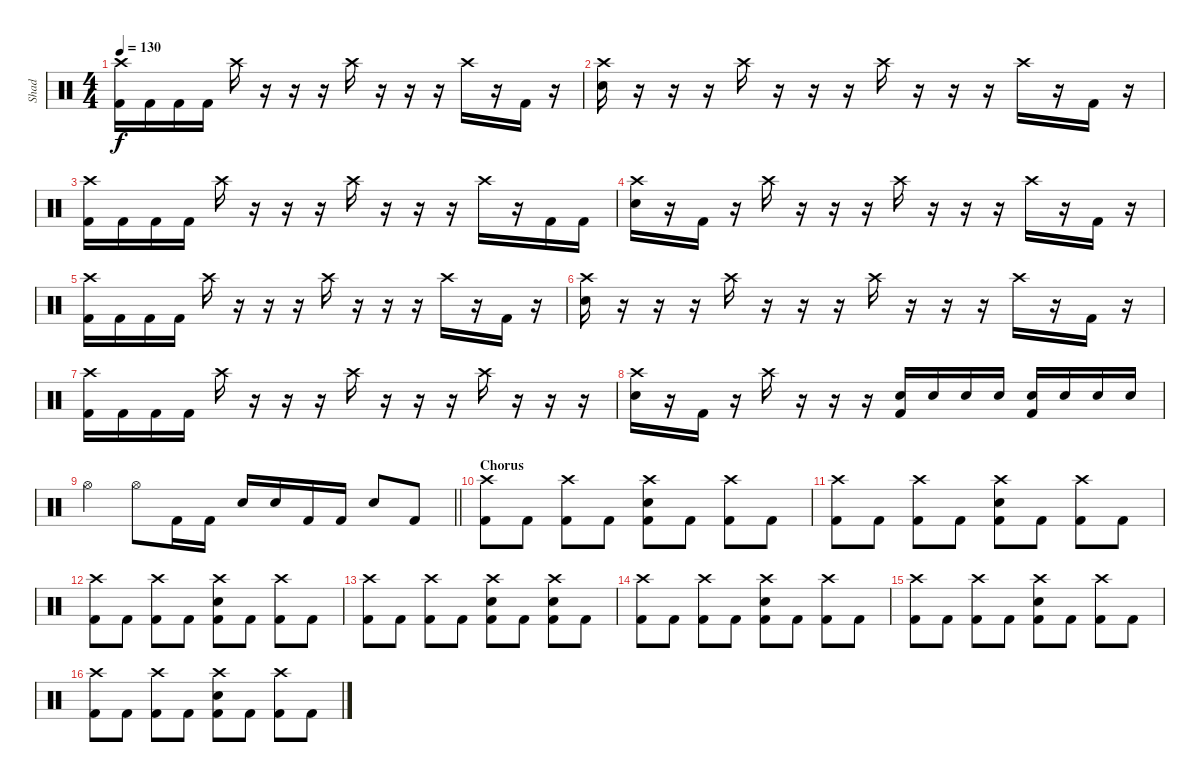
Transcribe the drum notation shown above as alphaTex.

\track ("Shad" "Shad") {instrument percussion}
\staff {score}
\articulation defaults
\ts (4 4)
\tempo 130
\clef neutral
\ks c
("Crash high (hit)" "Kick (hit) 2").16{dy f} "Kick (hit) 2".16 "Kick (hit) 2".16 "Kick (hit) 2".16 "Crash high (hit)".16 r.16 r.16 r.16 "Crash high (hit)".16 r.16 r.16 r.16 "Crash high (hit)".16 r.16 "Kick (hit) 2".16 r.16 |
("Crash high (hit)" "Electric Snare (hit)").16 r.16 r.16 r.16 "Crash high (hit)".16 r.16 r.16 r.16 "Crash high (hit)".16 r.16 r.16 r.16 "Crash high (hit)".16 r.16 "Kick (hit) 2".16 r.16 |
("Crash high (hit)" "Kick (hit) 2").16 "Kick (hit) 2".16 "Kick (hit) 2".16 "Kick (hit) 2".16 "Crash high (hit)".16 r.16 r.16 r.16 "Crash high (hit)".16 r.16 r.16 r.16 "Crash high (hit)".16 r.16 "Kick (hit) 2".16 "Kick (hit) 2".16 |
("Crash high (hit)" "Electric Snare (hit)").16 r.16 "Kick (hit) 2".16 r.16 "Crash high (hit)".16 r.16 r.16 r.16 "Crash high (hit)".16 r.16 r.16 r.16 "Crash high (hit)".16 r.16 "Kick (hit) 2".16 r.16 |
("Crash high (hit)" "Kick (hit) 2").16 "Kick (hit) 2".16 "Kick (hit) 2".16 "Kick (hit) 2".16 "Crash high (hit)".16 r.16 r.16 r.16 "Crash high (hit)".16 r.16 r.16 r.16 "Crash high (hit)".16 r.16 "Kick (hit) 2".16 r.16 |
("Crash high (hit)" "Electric Snare (hit)").16 r.16 r.16 r.16 "Crash high (hit)".16 r.16 r.16 r.16 "Crash high (hit)".16 r.16 r.16 r.16 "Crash high (hit)".16 r.16 "Kick (hit) 2".16 r.16 |
("Crash high (hit)" "Kick (hit) 2").16 "Kick (hit) 2".16 "Kick (hit) 2".16 "Kick (hit) 2".16 "Crash high (hit)".16 r.16 r.16 r.16 "Crash high (hit)".16 r.16 r.16 r.16 "Crash high (hit)".16 r.16 r.16 r.16 |
("Crash high (hit)" "Electric Snare (hit)").16 r.16 "Kick (hit) 2".16 r.16 "Crash high (hit)".16 r.16 r.16 r.16 ("Electric Snare (hit)" "Kick (hit) 2").16 "Electric Snare (hit)".16 "Electric Snare (hit)".16 "Electric Snare (hit)".16 ("Electric Snare (hit)" "Kick (hit) 2").16 "Electric Snare (hit)".16 "Electric Snare (hit)".16 "Electric Snare (hit)".16 |
\barLineRight lightlight "Hi-Hat (open)".4 "Hi-Hat (open)".8 "Kick (hit) 2".16 "Kick (hit) 2".16 "Electric Snare (hit)".16 "Electric Snare (hit)".16 "Kick (hit) 2".16 "Kick (hit) 2".16 "Electric Snare (hit)".8 "Kick (hit) 2".8
|
\section ("" "Chorus")
("Crash high (hit)" "Kick (hit) 2").8 "Kick (hit) 2".8 ("Crash high (hit)" "Kick (hit) 2").8 "Kick (hit) 2".8 ("Crash high (hit)" "Electric Snare (hit)" "Kick (hit) 2").8 "Kick (hit) 2".8 ("Crash high (hit)" "Kick (hit) 2").8 "Kick (hit) 2".8 |
("Crash high (hit)" "Kick (hit) 2").8 "Kick (hit) 2".8 ("Crash high (hit)" "Kick (hit) 2").8 "Kick (hit) 2".8 ("Crash high (hit)" "Electric Snare (hit)" "Kick (hit) 2").8 "Kick (hit) 2".8 ("Crash high (hit)" "Kick (hit) 2").8 "Kick (hit) 2".8 |
("Crash high (hit)" "Kick (hit) 2").8 "Kick (hit) 2".8 ("Crash high (hit)" "Kick (hit) 2").8 "Kick (hit) 2".8 ("Crash high (hit)" "Electric Snare (hit)" "Kick (hit) 2").8 "Kick (hit) 2".8 ("Crash high (hit)" "Kick (hit) 2").8 "Kick (hit) 2".8 |
("Crash high (hit)" "Kick (hit) 2").8 "Kick (hit) 2".8 ("Crash high (hit)" "Kick (hit) 2").8 "Kick (hit) 2".8 ("Crash high (hit)" "Electric Snare (hit)" "Kick (hit) 2").8 "Kick (hit) 2".8 ("Crash high (hit)" "Electric Snare (hit)" "Kick (hit) 2").8 "Kick (hit) 2".8 |
("Crash high (hit)" "Kick (hit) 2").8 "Kick (hit) 2".8 ("Crash high (hit)" "Kick (hit) 2").8 "Kick (hit) 2".8 ("Crash high (hit)" "Electric Snare (hit)" "Kick (hit) 2").8 "Kick (hit) 2".8 ("Crash high (hit)" "Kick (hit) 2").8 "Kick (hit) 2".8 |
("Crash high (hit)" "Kick (hit) 2").8 "Kick (hit) 2".8 ("Crash high (hit)" "Kick (hit) 2").8 "Kick (hit) 2".8 ("Crash high (hit)" "Electric Snare (hit)" "Kick (hit) 2").8 "Kick (hit) 2".8 ("Crash high (hit)" "Kick (hit) 2").8 "Kick (hit) 2".8 |
("Crash high (hit)" "Kick (hit) 2").8 "Kick (hit) 2".8 ("Crash high (hit)" "Kick (hit) 2").8 "Kick (hit) 2".8 ("Crash high (hit)" "Electric Snare (hit)" "Kick (hit) 2").8 "Kick (hit) 2".8 ("Crash high (hit)" "Kick (hit) 2").8 "Kick (hit) 2".8
